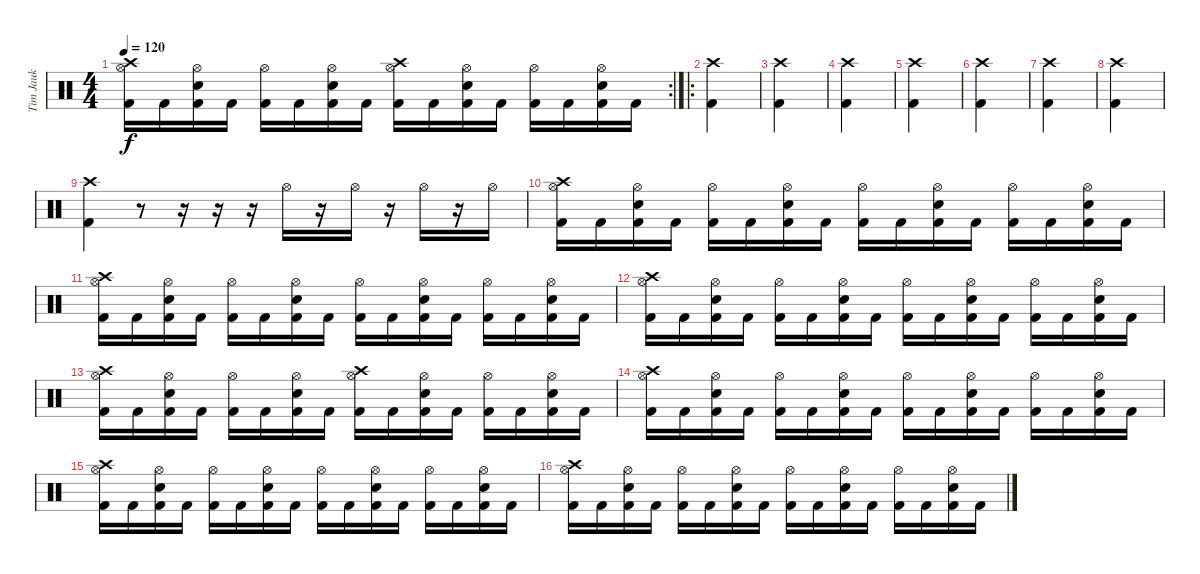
\track ("Tim Jauk" "Tim Jauk") {instrument percussion}
\staff {score}
\articulation defaults
\rc 2
\ts (4 4)
\tempo 120
\clef neutral
\ks c
("Crash high (hit)" "Hi-Hat (open)" "Kick (hit) 2").16{dy f} "Kick (hit) 2".16 ("Hi-Hat (open)" "Snare (hit) 2" "Kick (hit) 2").16 "Kick (hit) 2".16 ("Hi-Hat (open)" "Kick (hit) 2").16 "Kick (hit) 2".16 ("Hi-Hat (open)" "Snare (hit) 2" "Kick (hit) 2").16 "Kick (hit) 2".16 ("Crash high (hit)" "Hi-Hat (open)" "Kick (hit) 2").16 "Kick (hit) 2".16 ("Hi-Hat (open)" "Snare (hit) 2" "Kick (hit) 2").16 "Kick (hit) 2".16 ("Hi-Hat (open)" "Kick (hit) 2").16 "Kick (hit) 2".16 ("Hi-Hat (open)" "Snare (hit) 2" "Kick (hit) 2").16 "Kick (hit) 2".16 |
\ro
("Crash high (hit)" "Kick (hit) 2").4 |
("Crash high (hit)" "Kick (hit) 2").4 |
("Crash high (hit)" "Kick (hit) 2").4 |
("Crash high (hit)" "Kick (hit) 2").4 |
("Crash high (hit)" "Kick (hit) 2").4 |
("Crash high (hit)" "Kick (hit) 2").4 |
("Crash high (hit)" "Kick (hit) 2").4 |
("Crash high (hit)" "Kick (hit) 2").4 r.8 r.16 r.16 r.16 "Hi-Hat (open)".16 r.16 "Hi-Hat (open)".16 r.16 "Hi-Hat (open)".16 r.16 "Hi-Hat (open)".16 |
("Crash high (hit)" "Hi-Hat (open)" "Kick (hit) 2").16 "Kick (hit) 2".16 ("Hi-Hat (open)" "Snare (hit) 2" "Kick (hit) 2").16 "Kick (hit) 2".16 ("Hi-Hat (open)" "Kick (hit) 2").16 "Kick (hit) 2".16 ("Hi-Hat (open)" "Snare (hit) 2" "Kick (hit) 2").16 "Kick (hit) 2".16 ("Hi-Hat (open)" "Kick (hit) 2").16 "Kick (hit) 2".16 ("Hi-Hat (open)" "Snare (hit) 2" "Kick (hit) 2").16 "Kick (hit) 2".16 ("Hi-Hat (open)" "Kick (hit) 2").16 "Kick (hit) 2".16 ("Hi-Hat (open)" "Snare (hit) 2" "Kick (hit) 2").16 "Kick (hit) 2".16 |
("Crash high (hit)" "Hi-Hat (open)" "Kick (hit) 2").16 "Kick (hit) 2".16 ("Hi-Hat (open)" "Snare (hit) 2" "Kick (hit) 2").16 "Kick (hit) 2".16 ("Hi-Hat (open)" "Kick (hit) 2").16 "Kick (hit) 2".16 ("Hi-Hat (open)" "Snare (hit) 2" "Kick (hit) 2").16 "Kick (hit) 2".16 ("Hi-Hat (open)" "Kick (hit) 2").16 "Kick (hit) 2".16 ("Hi-Hat (open)" "Snare (hit) 2" "Kick (hit) 2").16 "Kick (hit) 2".16 ("Hi-Hat (open)" "Kick (hit) 2").16 "Kick (hit) 2".16 ("Hi-Hat (open)" "Snare (hit) 2" "Kick (hit) 2").16 "Kick (hit) 2".16 |
("Crash high (hit)" "Hi-Hat (open)" "Kick (hit) 2").16 "Kick (hit) 2".16 ("Hi-Hat (open)" "Snare (hit) 2" "Kick (hit) 2").16 "Kick (hit) 2".16 ("Hi-Hat (open)" "Kick (hit) 2").16 "Kick (hit) 2".16 ("Hi-Hat (open)" "Snare (hit) 2" "Kick (hit) 2").16 "Kick (hit) 2".16 ("Hi-Hat (open)" "Kick (hit) 2").16 "Kick (hit) 2".16 ("Hi-Hat (open)" "Snare (hit) 2" "Kick (hit) 2").16 "Kick (hit) 2".16 ("Hi-Hat (open)" "Kick (hit) 2").16 "Kick (hit) 2".16 ("Hi-Hat (open)" "Snare (hit) 2" "Kick (hit) 2").16 "Kick (hit) 2".16 |
("Crash high (hit)" "Hi-Hat (open)" "Kick (hit) 2").16 "Kick (hit) 2".16 ("Hi-Hat (open)" "Snare (hit) 2" "Kick (hit) 2").16 "Kick (hit) 2".16 ("Hi-Hat (open)" "Kick (hit) 2").16 "Kick (hit) 2".16 ("Hi-Hat (open)" "Snare (hit) 2" "Kick (hit) 2").16 "Kick (hit) 2".16 ("Crash high (hit)" "Hi-Hat (open)" "Kick (hit) 2").16 "Kick (hit) 2".16 ("Hi-Hat (open)" "Snare (hit) 2" "Kick (hit) 2").16 "Kick (hit) 2".16 ("Hi-Hat (open)" "Kick (hit) 2").16 "Kick (hit) 2".16 ("Hi-Hat (open)" "Snare (hit) 2" "Kick (hit) 2").16 "Kick (hit) 2".16 |
("Crash high (hit)" "Hi-Hat (open)" "Kick (hit) 2").16 "Kick (hit) 2".16 ("Hi-Hat (open)" "Snare (hit) 2" "Kick (hit) 2").16 "Kick (hit) 2".16 ("Hi-Hat (open)" "Kick (hit) 2").16 "Kick (hit) 2".16 ("Hi-Hat (open)" "Snare (hit) 2" "Kick (hit) 2").16 "Kick (hit) 2".16 ("Hi-Hat (open)" "Kick (hit) 2").16 "Kick (hit) 2".16 ("Hi-Hat (open)" "Snare (hit) 2" "Kick (hit) 2").16 "Kick (hit) 2".16 ("Hi-Hat (open)" "Kick (hit) 2").16 "Kick (hit) 2".16 ("Hi-Hat (open)" "Snare (hit) 2" "Kick (hit) 2").16 "Kick (hit) 2".16 |
("Crash high (hit)" "Hi-Hat (open)" "Kick (hit) 2").16 "Kick (hit) 2".16 ("Hi-Hat (open)" "Snare (hit) 2" "Kick (hit) 2").16 "Kick (hit) 2".16 ("Hi-Hat (open)" "Kick (hit) 2").16 "Kick (hit) 2".16 ("Hi-Hat (open)" "Snare (hit) 2" "Kick (hit) 2").16 "Kick (hit) 2".16 ("Hi-Hat (open)" "Kick (hit) 2").16 "Kick (hit) 2".16 ("Hi-Hat (open)" "Snare (hit) 2" "Kick (hit) 2").16 "Kick (hit) 2".16 ("Hi-Hat (open)" "Kick (hit) 2").16 "Kick (hit) 2".16 ("Hi-Hat (open)" "Snare (hit) 2" "Kick (hit) 2").16 "Kick (hit) 2".16 |
("Crash high (hit)" "Hi-Hat (open)" "Kick (hit) 2").16 "Kick (hit) 2".16 ("Hi-Hat (open)" "Snare (hit) 2" "Kick (hit) 2").16 "Kick (hit) 2".16 ("Hi-Hat (open)" "Kick (hit) 2").16 "Kick (hit) 2".16 ("Hi-Hat (open)" "Snare (hit) 2" "Kick (hit) 2").16 "Kick (hit) 2".16 ("Hi-Hat (open)" "Kick (hit) 2").16 "Kick (hit) 2".16 ("Hi-Hat (open)" "Snare (hit) 2" "Kick (hit) 2").16 "Kick (hit) 2".16 ("Hi-Hat (open)" "Kick (hit) 2").16 "Kick (hit) 2".16 ("Hi-Hat (open)" "Snare (hit) 2" "Kick (hit) 2").16 "Kick (hit) 2".16
